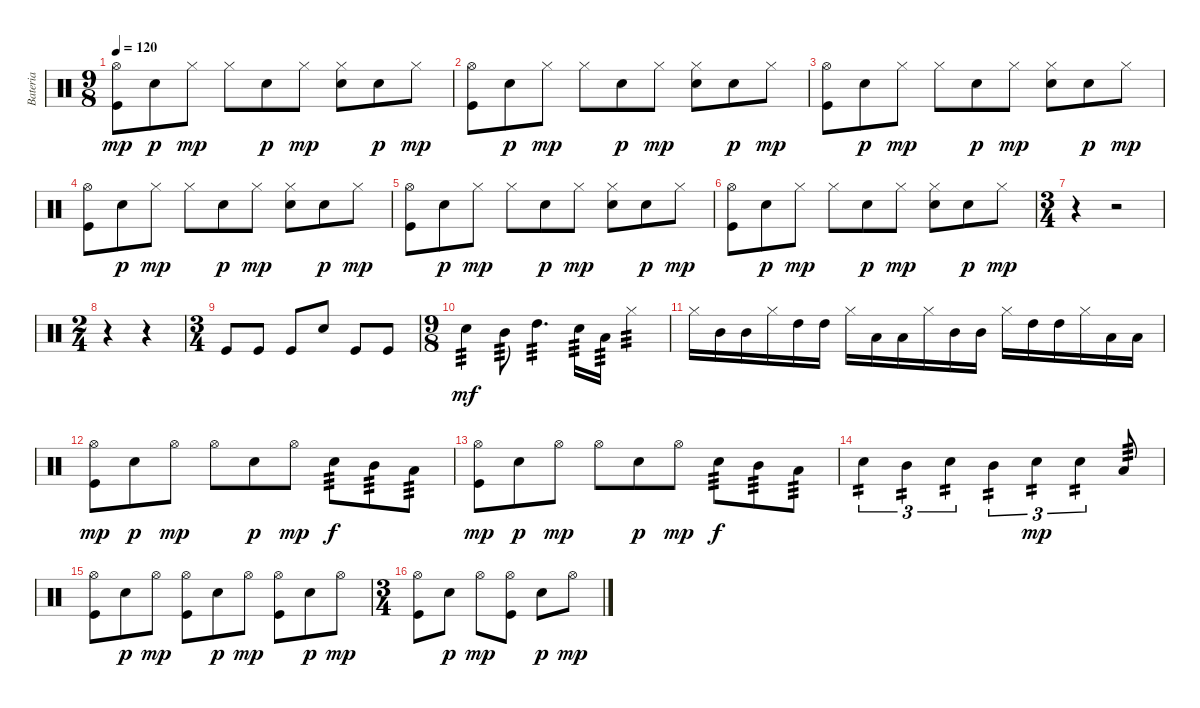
\track ("Bateria" "Bateria") {instrument percussion}
\staff {score}
\articulation defaults
\ts (9 8)
\tempo 120
\clef neutral
\ks c
("Hi-Hat (open)" "Kick (hit)").8{dy mp} "Snare (hit) 2".8{dy p} "Hi-Hat (closed)".8{dy mp} "Hi-Hat (closed)".8 "Snare (hit) 2".8{dy p} "Hi-Hat (closed)".8{dy mp} ("Hi-Hat (closed)" "Snare (hit) 2").8 "Snare (hit) 2".8{dy p} "Hi-Hat (closed)".8{dy mp} |
("Hi-Hat (open)" "Kick (hit)").8 "Snare (hit) 2".8{dy p} "Hi-Hat (closed)".8{dy mp} "Hi-Hat (closed)".8 "Snare (hit) 2".8{dy p} "Hi-Hat (closed)".8{dy mp} ("Hi-Hat (closed)" "Snare (hit) 2").8 "Snare (hit) 2".8{dy p} "Hi-Hat (closed)".8{dy mp} |
("Hi-Hat (open)" "Kick (hit)").8 "Snare (hit) 2".8{dy p} "Hi-Hat (closed)".8{dy mp} "Hi-Hat (closed)".8 "Snare (hit) 2".8{dy p} "Hi-Hat (closed)".8{dy mp} ("Hi-Hat (closed)" "Snare (hit) 2").8 "Snare (hit) 2".8{dy p} "Hi-Hat (closed)".8{dy mp} |
("Hi-Hat (open)" "Kick (hit)").8 "Snare (hit) 2".8{dy p} "Hi-Hat (closed)".8{dy mp} "Hi-Hat (closed)".8 "Snare (hit) 2".8{dy p} "Hi-Hat (closed)".8{dy mp} ("Hi-Hat (closed)" "Snare (hit) 2").8 "Snare (hit) 2".8{dy p} "Hi-Hat (closed)".8{dy mp} |
("Hi-Hat (open)" "Kick (hit)").8 "Snare (hit) 2".8{dy p} "Hi-Hat (closed)".8{dy mp} "Hi-Hat (closed)".8 "Snare (hit) 2".8{dy p} "Hi-Hat (closed)".8{dy mp} ("Hi-Hat (closed)" "Snare (hit) 2").8 "Snare (hit) 2".8{dy p} "Hi-Hat (closed)".8{dy mp} |
("Hi-Hat (open)" "Kick (hit)").8 "Snare (hit) 2".8{dy p} "Hi-Hat (closed)".8{dy mp} "Hi-Hat (closed)".8 "Snare (hit) 2".8{dy p} "Hi-Hat (closed)".8{dy mp} ("Hi-Hat (closed)" "Snare (hit) 2").8 "Snare (hit) 2".8{dy p} "Hi-Hat (closed)".8{dy mp} |
\ts (3 4)
r.4 r.2 |
\ts (2 4)
r.4 r.4 |
\ts (3 4)
"Kick (hit)".8 "Kick (hit)".8 "Kick (hit)".8 "Snare (hit) 2".8 "Kick (hit)".8 "Kick (hit)".8 |
\ts (9 8)
"Snare (hit) 2".4{tp 3 dy mf} "Mid Tom (hit)".8{tp 3} "High Tom (hit)".4{d tp 3} "Snare (hit) 2".16{tp 3} "Low Tom (hit)".16{tp 3} "Hi-Hat (closed)".4{tp 3} |
"Hi-Hat (closed)".16 "Mid Tom (hit)".16 "Mid Tom (hit)".16 "Hi-Hat (closed)".16 "High Tom (hit)".16 "High Tom (hit)".16 "Hi-Hat (closed)".16 "Low Tom (hit)".16 "Low Tom (hit)".16 "Hi-Hat (closed)".16 "Mid Tom (hit)".16 "Mid Tom (hit)".16 "Hi-Hat (closed)".16 "High Tom (hit)".16 "High Tom (hit)".16 "Hi-Hat (closed)".16 "Low Tom (hit)".16 "Low Tom (hit)".16 |
("Hi-Hat (open)" "Kick (hit)").8{dy mp} "Snare (hit) 2".8{dy p} "Hi-Hat (open)".8{dy mp} "Hi-Hat (open)".8 "Snare (hit) 2".8{dy p} "Hi-Hat (open)".8{dy mp} "Snare (hit) 2".8{tp 3 dy f} "Mid Tom (hit)".8{tp 3} "Low Tom (hit)".8{tp 3} |
("Hi-Hat (open)" "Kick (hit)").8{dy mp} "Snare (hit) 2".8{dy p} "Hi-Hat (open)".8{dy mp} "Hi-Hat (open)".8 "Snare (hit) 2".8{dy p} "Hi-Hat (open)".8{dy mp} "Snare (hit) 2".8{tp 3 dy f} "Mid Tom (hit)".8{tp 3} "Low Tom (hit)".8{tp 3} |
"Snare (hit) 2".4{tu (3 2) tp 2} "Mid Tom (hit)".4{tu (3 2) tp 2} "Snare (hit) 2".4{tu (3 2) tp 2} "Mid Tom (hit)".4{tu (3 2) tp 2} "Snare (hit) 2".4{tu (3 2) tp 2 dy mp} "Snare (hit) 2".4{tu (3 2) tp 2} "Low Tom (hit)".8{tp 3} |
("Hi-Hat (open)" "Kick (hit)").8 "Snare (hit) 2".8{dy p} "Hi-Hat (open)".8{dy mp} ("Hi-Hat (open)" "Kick (hit)").8 "Snare (hit) 2".8{dy p} "Hi-Hat (open)".8{dy mp} ("Hi-Hat (open)" "Kick (hit)").8 "Snare (hit) 2".8{dy p} "Hi-Hat (open)".8{dy mp} |
\ts (3 4)
("Hi-Hat (open)" "Kick (hit)").8 "Snare (hit) 2".8{dy p} "Hi-Hat (open)".8{dy mp} ("Hi-Hat (open)" "Kick (hit)").8 "Snare (hit) 2".8{dy p} "Hi-Hat (open)".8{dy mp}
